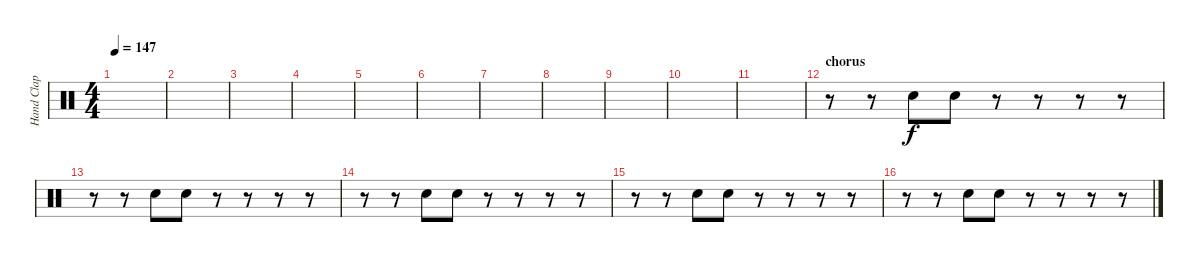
\track ("Hand Clap" "Hand Clap") {instrument percussion}
\staff {score}
\articulation defaults
\ts (4 4)
\tempo 147
\clef neutral
\ks c
|
|
|
|
|
|
|
|
|
|
|
\section ("" "chorus")
r.8 r.8 "Hand Clap (hit)".8 "Hand Clap (hit)".8 r.8 r.8 r.8 r.8 |
r.8 r.8 "Hand Clap (hit)".8 "Hand Clap (hit)".8 r.8 r.8 r.8 r.8 |
r.8 r.8 "Hand Clap (hit)".8 "Hand Clap (hit)".8 r.8 r.8 r.8 r.8 |
r.8 r.8 "Hand Clap (hit)".8 "Hand Clap (hit)".8 r.8 r.8 r.8 r.8 |
r.8 r.8 "Hand Clap (hit)".8 "Hand Clap (hit)".8 r.8 r.8 r.8 r.8
